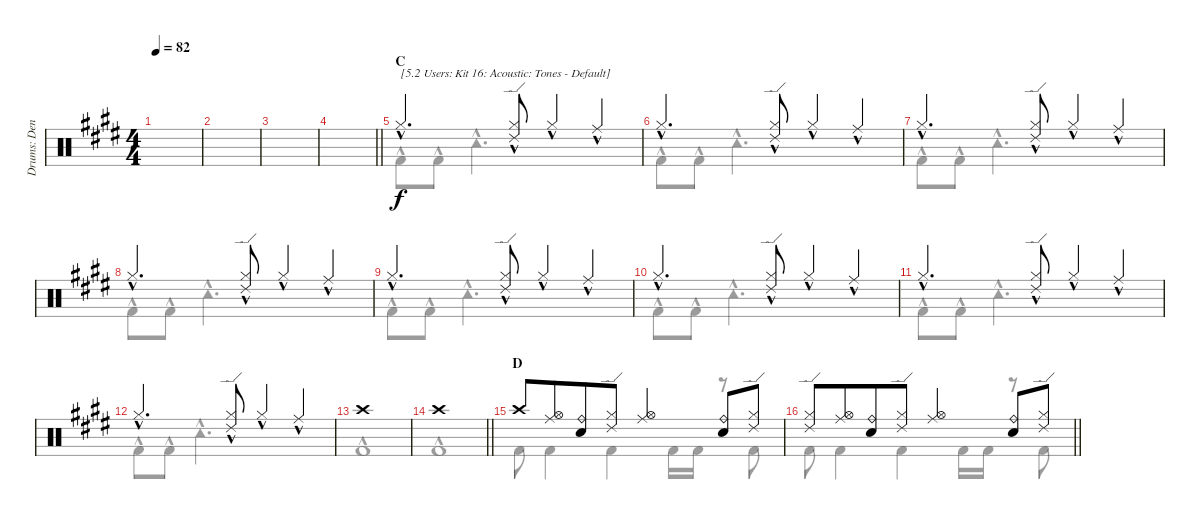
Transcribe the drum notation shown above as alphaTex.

\track ("Drums: Denny" "Drums: Den") {instrument percussion}
\staff {score}
\articulation defaults
\voice
\ts (4 4)
\tempo 82
\clef neutral
\ks e
|
|
|
\barLineRight lightlight
|
\section ("" "C")
"Hi-Hat (closed)"{hac}.4{d txt "[5.2 Users: Kit 16: Acoustic: Tones - Default]"} ("Ride (edge) 2"{hac} "Hi-Hat (closed)"{hac}).8 "Hi-Hat (closed)"{hac}.4 "Ride (middle)"{hac}.4 |
"Hi-Hat (closed)"{hac}.4{d} ("Ride (edge) 2"{hac} "Hi-Hat (closed)"{hac}).8 "Hi-Hat (closed)"{hac}.4 "Ride (middle)"{hac}.4 |
"Hi-Hat (closed)"{hac}.4{d} ("Ride (edge) 2"{hac} "Hi-Hat (closed)"{hac}).8 "Hi-Hat (closed)"{hac}.4 "Ride (middle)"{hac}.4 |
"Hi-Hat (closed)"{hac}.4{d} ("Ride (edge) 2"{hac} "Hi-Hat (closed)"{hac}).8 "Hi-Hat (closed)"{hac}.4 "Ride (middle)"{hac}.4 |
"Hi-Hat (closed)"{hac}.4{d} ("Ride (edge) 2"{hac} "Hi-Hat (closed)"{hac}).8 "Hi-Hat (closed)"{hac}.4 "Ride (middle)"{hac}.4 |
"Hi-Hat (closed)"{hac}.4{d} ("Ride (edge) 2"{hac} "Hi-Hat (closed)"{hac}).8 "Hi-Hat (closed)"{hac}.4 "Ride (middle)"{hac}.4 |
"Hi-Hat (closed)"{hac}.4{d} ("Ride (edge) 2"{hac} "Hi-Hat (closed)"{hac}).8 "Hi-Hat (closed)"{hac}.4 "Ride (middle)"{hac}.4 |
"Hi-Hat (closed)"{hac}.4{d} ("Ride (edge) 2"{hac} "Hi-Hat (closed)"{hac}).8 "Hi-Hat (closed)"{hac}.4 "Ride (middle)"{hac}.4 |
"Crash high (hit)".1 |
\barLineRight lightlight "Crash high (hit)".1
|
\section ("" "D")
"Crash high (hit)".8 ("Ride (middle)" "Hi-Hat (open)").8{beam merge} ("Ride (bell)" "Snare (hit) 2").8 ("Ride (edge) 2" "Hi-Hat (closed)").8 ("Ride (middle)" "Hi-Hat (open)").4 ("Ride (bell)" "Snare (hit) 2").8 ("Ride (edge) 2" "Hi-Hat (closed)").8 |
\barLineRight lightlight
("Ride (edge) 2" "Hi-Hat (closed)").8 ("Ride (middle)" "Hi-Hat (open)").8{beam merge} ("Ride (bell)" "Snare (hit) 2").8 ("Ride (edge) 2" "Hi-Hat (closed)").8 ("Ride (middle)" "Hi-Hat (open)").4 ("Ride (bell)" "Snare (hit) 2").8 ("Ride (edge) 2" "Hi-Hat (closed)").8
\voice
\clef neutral
\ottava regular
\simile none
\ks e
|
|
|
\barLineRight lightlight
|
"Kick (hit) 2"{hac}.8 "Kick (hit) 2"{hac}.8 "Tambourine (hit)"{hac}.2{d} |
"Kick (hit) 2"{hac}.8 "Kick (hit) 2"{hac}.8 "Tambourine (hit)"{hac}.2{d} |
"Kick (hit) 2"{hac}.8 "Kick (hit) 2"{hac}.8 "Tambourine (hit)"{hac}.2{d} |
"Kick (hit) 2"{hac}.8 "Kick (hit) 2"{hac}.8 "Tambourine (hit)"{hac}.2{d} |
"Kick (hit) 2"{hac}.8 "Kick (hit) 2"{hac}.8 "Tambourine (hit)"{hac}.2{d} |
"Kick (hit) 2"{hac}.8 "Kick (hit) 2"{hac}.8 "Tambourine (hit)"{hac}.2{d} |
"Kick (hit) 2"{hac}.8 "Kick (hit) 2"{hac}.8 "Tambourine (hit)"{hac}.2{d} |
"Kick (hit) 2"{hac}.8 "Kick (hit) 2"{hac}.8 "Tambourine (hit)"{hac}.2{d} |
"Kick (hit) 2"{hac}.1 |
\barLineRight lightlight "Kick (hit) 2"{hac}.1
|
"Kick (hit) 2".8 "Kick (hit) 2".4 "Kick (hit) 2".4 "Kick (hit) 2".16 "Kick (hit) 2".16 r.8 "Kick (hit) 2".8 |
\barLineRight lightlight "Kick (hit) 2".8 "Kick (hit) 2".4 "Kick (hit) 2".4 "Kick (hit) 2".16 "Kick (hit) 2".16
r.8 "Kick (hit) 2".8
